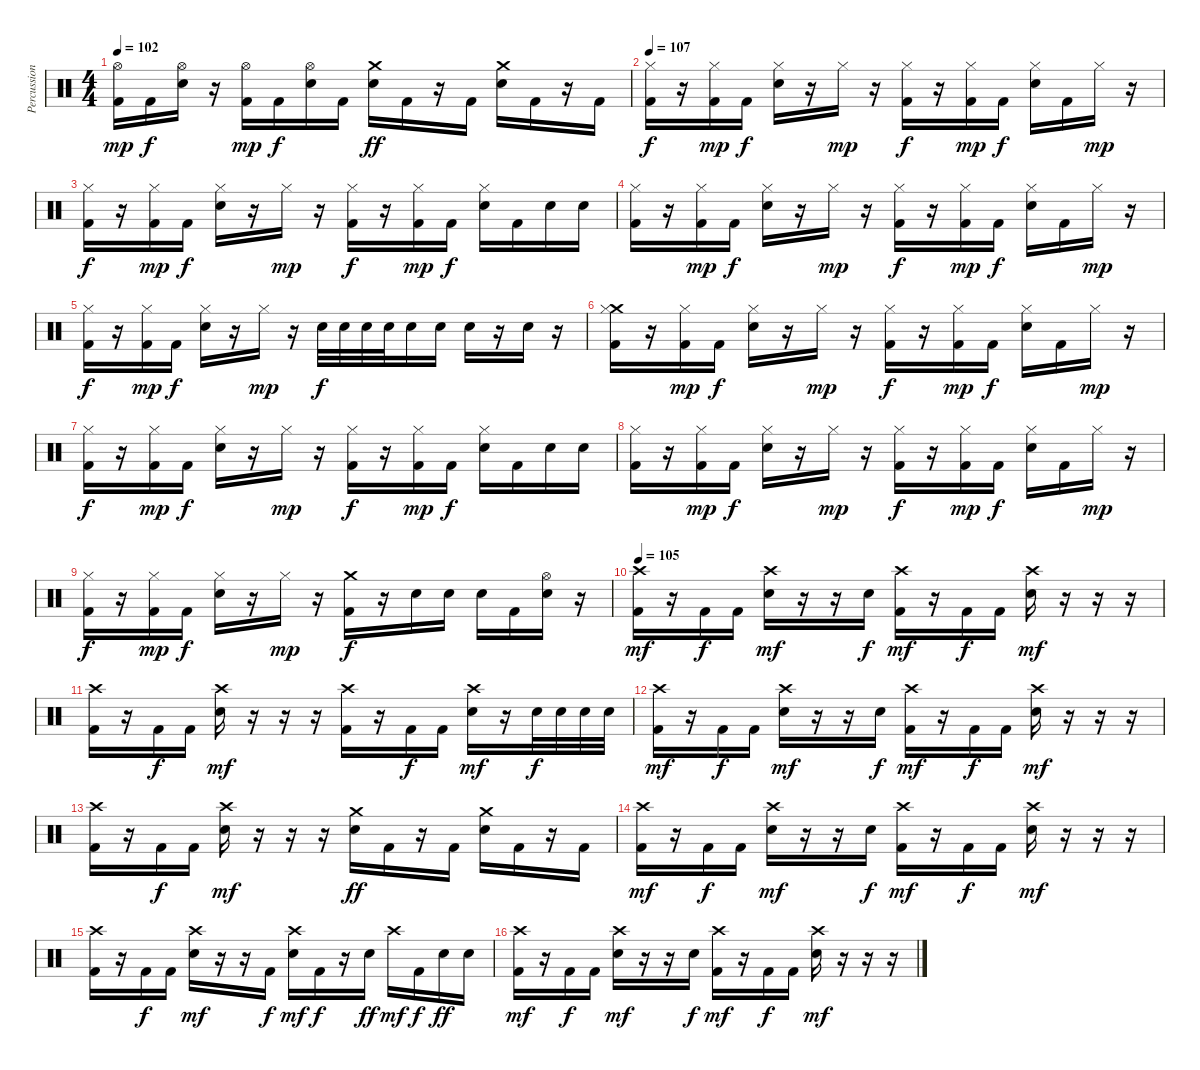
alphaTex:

\track ("Percussion" "Percussion") {instrument percussion}
\staff {score}
\articulation defaults
\ts (4 4)
\tempo 102
\clef neutral
\ks c
("Kick (hit) 2" "Hi-Hat (open)").16{dy mp} "Kick (hit) 2".16{dy f} ("Electric Snare (hit)" "Hi-Hat (open)").16 r.16 ("Kick (hit) 2" "Hi-Hat (open)").16{dy mp} "Kick (hit) 2".16{dy f} ("Electric Snare (hit)" "Hi-Hat (open)").16 "Kick (hit) 2".16 ("Electric Snare (hit)" "Crash medium (hit)").16{dy ff} "Kick (hit) 2".16 r.16 "Kick (hit) 2".16 ("Electric Snare (hit)" "Crash medium (hit)").16 "Kick (hit) 2".16 r.16 "Kick (hit) 2".16 |
\tempo 107
("Kick (hit) 2" "Hi-Hat (closed)").16{dy f} r.16 ("Kick (hit) 2" "Hi-Hat (closed)").16{dy mp} "Kick (hit) 2".16{dy f} ("Electric Snare (hit)" "Hi-Hat (closed)").16 r.16 "Hi-Hat (closed)".16{dy mp} r.16 ("Kick (hit) 2" "Hi-Hat (closed)").16{dy f} r.16 ("Kick (hit) 2" "Hi-Hat (closed)").16{dy mp} "Kick (hit) 2".16{dy f} ("Electric Snare (hit)" "Hi-Hat (closed)").16 "Kick (hit) 2".16 "Hi-Hat (closed)".16{dy mp} r.16 |
("Kick (hit) 2" "Hi-Hat (closed)").16{dy f} r.16 ("Kick (hit) 2" "Hi-Hat (closed)").16{dy mp} "Kick (hit) 2".16{dy f} ("Electric Snare (hit)" "Hi-Hat (closed)").16 r.16 "Hi-Hat (closed)".16{dy mp} r.16 ("Kick (hit) 2" "Hi-Hat (closed)").16{dy f} r.16 ("Kick (hit) 2" "Hi-Hat (closed)").16{dy mp} "Kick (hit) 2".16{dy f} ("Electric Snare (hit)" "Hi-Hat (closed)").16 "Kick (hit) 2".16 "Electric Snare (hit)".16 "Electric Snare (hit)".16 |
("Kick (hit) 2" "Hi-Hat (closed)").16 r.16 ("Kick (hit) 2" "Hi-Hat (closed)").16{dy mp} "Kick (hit) 2".16{dy f} ("Electric Snare (hit)" "Hi-Hat (closed)").16 r.16 "Hi-Hat (closed)".16{dy mp} r.16 ("Kick (hit) 2" "Hi-Hat (closed)").16{dy f} r.16 ("Kick (hit) 2" "Hi-Hat (closed)").16{dy mp} "Kick (hit) 2".16{dy f} ("Electric Snare (hit)" "Hi-Hat (closed)").16 "Kick (hit) 2".16 "Hi-Hat (closed)".16{dy mp} r.16 |
("Kick (hit) 2" "Hi-Hat (closed)").16{dy f} r.16 ("Kick (hit) 2" "Hi-Hat (closed)").16{dy mp} "Kick (hit) 2".16{dy f} ("Electric Snare (hit)" "Hi-Hat (closed)").16 r.16 "Hi-Hat (closed)".16{dy mp} r.16 "Electric Snare (hit)".32{dy f} "Electric Snare (hit)".32 "Electric Snare (hit)".32 "Electric Snare (hit)".32 "Electric Snare (hit)".16 "Electric Snare (hit)".16 "Electric Snare (hit)".16 r.16 "Electric Snare (hit)".16 r.16 |
("Crash medium (hit)" "Kick (hit) 2" "Hi-Hat (closed)").16 r.16 ("Kick (hit) 2" "Hi-Hat (closed)").16{dy mp} "Kick (hit) 2".16{dy f} ("Electric Snare (hit)" "Hi-Hat (closed)").16 r.16 "Hi-Hat (closed)".16{dy mp} r.16 ("Kick (hit) 2" "Hi-Hat (closed)").16{dy f} r.16 ("Kick (hit) 2" "Hi-Hat (closed)").16{dy mp} "Kick (hit) 2".16{dy f} ("Electric Snare (hit)" "Hi-Hat (closed)").16 "Kick (hit) 2".16 "Hi-Hat (closed)".16{dy mp} r.16 |
("Kick (hit) 2" "Hi-Hat (closed)").16{dy f} r.16 ("Kick (hit) 2" "Hi-Hat (closed)").16{dy mp} "Kick (hit) 2".16{dy f} ("Electric Snare (hit)" "Hi-Hat (closed)").16 r.16 "Hi-Hat (closed)".16{dy mp} r.16 ("Kick (hit) 2" "Hi-Hat (closed)").16{dy f} r.16 ("Kick (hit) 2" "Hi-Hat (closed)").16{dy mp} "Kick (hit) 2".16{dy f} ("Electric Snare (hit)" "Hi-Hat (closed)").16 "Kick (hit) 2".16 "Electric Snare (hit)".16 "Electric Snare (hit)".16 |
("Kick (hit) 2" "Hi-Hat (closed)").16 r.16 ("Kick (hit) 2" "Hi-Hat (closed)").16{dy mp} "Kick (hit) 2".16{dy f} ("Electric Snare (hit)" "Hi-Hat (closed)").16 r.16 "Hi-Hat (closed)".16{dy mp} r.16 ("Kick (hit) 2" "Hi-Hat (closed)").16{dy f} r.16 ("Kick (hit) 2" "Hi-Hat (closed)").16{dy mp} "Kick (hit) 2".16{dy f} ("Electric Snare (hit)" "Hi-Hat (closed)").16 "Kick (hit) 2".16 "Hi-Hat (closed)".16{dy mp} r.16 |
("Kick (hit) 2" "Hi-Hat (closed)").16{dy f} r.16 ("Kick (hit) 2" "Hi-Hat (closed)").16{dy mp} "Kick (hit) 2".16{dy f} ("Electric Snare (hit)" "Hi-Hat (closed)").16 r.16 "Hi-Hat (closed)".16{dy mp} r.16 ("Kick (hit) 2" "Crash medium (hit)").16{dy f} r.16 "Electric Snare (hit)".16 "Electric Snare (hit)".16 "Electric Snare (hit)".16 "Kick (hit) 2".16 ("Electric Snare (hit)" "Hi-Hat (open)").16 r.16 |
\tempo 105
("Kick (hit) 2" "Crash high (hit)").16{dy mf} r.16 "Kick (hit) 2".16{dy f} "Kick (hit) 2".16 ("Electric Snare (hit)" "Crash high (hit)").16{dy mf} r.16 r.16 "Electric Snare (hit)".16{dy f} ("Kick (hit) 2" "Crash high (hit)").16{dy mf} r.16 "Kick (hit) 2".16{dy f} "Kick (hit) 2".16 ("Electric Snare (hit)" "Crash high (hit)").16{dy mf} r.16 r.16 r.16 |
("Kick (hit) 2" "Crash high (hit)").16 r.16 "Kick (hit) 2".16{dy f} "Kick (hit) 2".16 ("Electric Snare (hit)" "Crash high (hit)").16{dy mf} r.16 r.16 r.16 ("Kick (hit) 2" "Crash high (hit)").16 r.16 "Kick (hit) 2".16{dy f} "Kick (hit) 2".16 ("Electric Snare (hit)" "Crash high (hit)").16{dy mf} r.16 "Electric Snare (hit)".32{dy f} "Electric Snare (hit)".32 "Electric Snare (hit)".32 "Electric Snare (hit)".32 |
("Kick (hit) 2" "Crash high (hit)").16{dy mf} r.16 "Kick (hit) 2".16{dy f} "Kick (hit) 2".16 ("Electric Snare (hit)" "Crash high (hit)").16{dy mf} r.16 r.16 "Electric Snare (hit)".16{dy f} ("Kick (hit) 2" "Crash high (hit)").16{dy mf} r.16 "Kick (hit) 2".16{dy f} "Kick (hit) 2".16 ("Electric Snare (hit)" "Crash high (hit)").16{dy mf} r.16 r.16 r.16 |
("Kick (hit) 2" "Crash high (hit)").16 r.16 "Kick (hit) 2".16{dy f} "Kick (hit) 2".16 ("Electric Snare (hit)" "Crash high (hit)").16{dy mf} r.16 r.16 r.16 ("Electric Snare (hit)" "Crash medium (hit)").16{dy ff} "Kick (hit) 2".16 r.16 "Kick (hit) 2".16 ("Electric Snare (hit)" "Crash medium (hit)").16 "Kick (hit) 2".16 r.16 "Kick (hit) 2".16 |
("Kick (hit) 2" "Crash high (hit)").16{dy mf} r.16 "Kick (hit) 2".16{dy f} "Kick (hit) 2".16 ("Electric Snare (hit)" "Crash high (hit)").16{dy mf} r.16 r.16 "Electric Snare (hit)".16{dy f} ("Kick (hit) 2" "Crash high (hit)").16{dy mf} r.16 "Kick (hit) 2".16{dy f} "Kick (hit) 2".16 ("Electric Snare (hit)" "Crash high (hit)").16{dy mf} r.16 r.16 r.16 |
("Kick (hit) 2" "Crash high (hit)").16 r.16 "Kick (hit) 2".16{dy f} "Kick (hit) 2".16 ("Electric Snare (hit)" "Crash high (hit)").16{dy mf} r.16 r.16 "Kick (hit) 2".16{dy f} ("Electric Snare (hit)" "Crash high (hit)").16{dy mf} "Kick (hit) 2".16{dy f} r.16 "Electric Snare (hit)".16{dy ff} "Crash high (hit)".16{dy mf} "Kick (hit) 2".16{dy f} "Electric Snare (hit)".16{dy ff} "Electric Snare (hit)".16 |
("Kick (hit) 2" "Crash high (hit)").16{dy mf} r.16 "Kick (hit) 2".16{dy f} "Kick (hit) 2".16 ("Electric Snare (hit)" "Crash high (hit)").16{dy mf} r.16 r.16 "Electric Snare (hit)".16{dy f} ("Kick (hit) 2" "Crash high (hit)").16{dy mf} r.16 "Kick (hit) 2".16{dy f} "Kick (hit) 2".16 ("Electric Snare (hit)" "Crash high (hit)").16{dy mf} r.16 r.16 r.16
